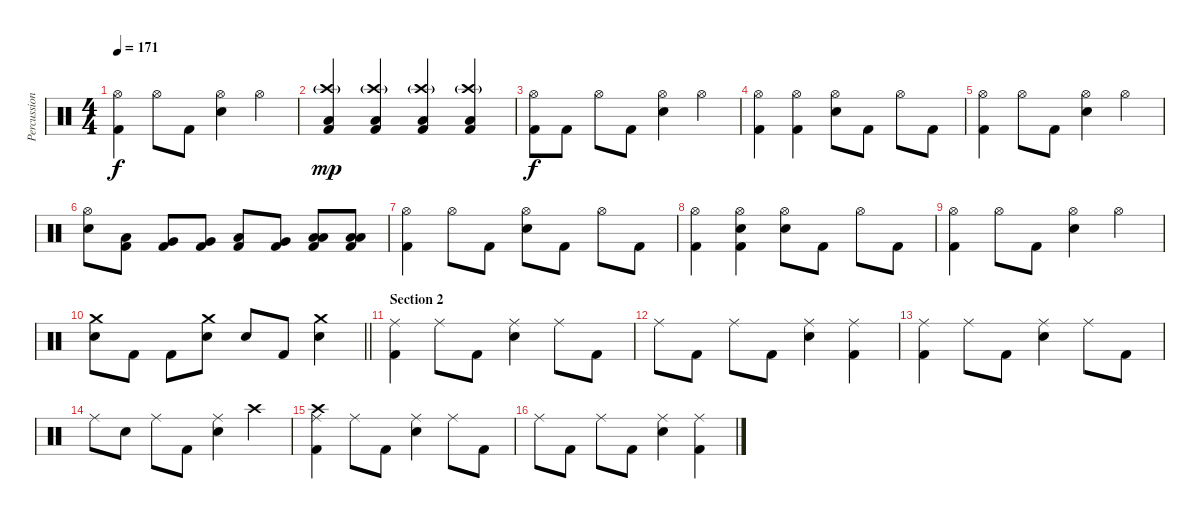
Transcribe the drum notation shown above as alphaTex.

\track ("Percussion" "Percussion") {instrument percussion}
\staff {score}
\articulation defaults
\ts (4 4)
\tempo 171
\clef neutral
\ks c
("Hi-Hat (open)" "Kick (hit) 2").4{dy f} "Hi-Hat (open)".8 "Kick (hit) 2".8 ("Hi-Hat (open)" "Snare (hit) 2").4 "Hi-Hat (open)".4 |
("Crash high (hit)"{g} "Low Tom (hit)" "Kick (hit) 2").4{dy mp} ("Crash high (hit)"{g} "Low Tom (hit)" "Kick (hit) 2").4 ("Crash high (hit)"{g} "Low Tom (hit)" "Kick (hit) 2").4 ("Crash high (hit)"{g} "Low Tom (hit)" "Kick (hit) 2").4 |
("Hi-Hat (open)" "Kick (hit) 2").8{dy f} "Kick (hit) 2".8 "Hi-Hat (open)".8 "Kick (hit) 2".8 ("Hi-Hat (open)" "Snare (hit) 2").4 "Hi-Hat (open)".4 |
("Hi-Hat (open)" "Kick (hit) 2").4 ("Hi-Hat (open)" "Kick (hit) 2").4 ("Hi-Hat (open)" "Snare (hit) 2").8 "Kick (hit) 2".8 "Hi-Hat (open)".8 "Kick (hit) 2".8 |
("Hi-Hat (open)" "Kick (hit) 2").4 "Hi-Hat (open)".8 "Kick (hit) 2".8 ("Hi-Hat (open)" "Snare (hit) 2").4 "Hi-Hat (open)".4 |
("Hi-Hat (open)" "Snare (hit) 2").8 ("Low Tom (hit)" "Kick (hit) 2").8 ("Very Low Tom (hit)" "Kick (hit) 2").8 ("Very Low Tom (hit)" "Kick (hit) 2").8 ("Low Tom (hit)" "Kick (hit) 2").8 ("Very Low Tom (hit)" "Kick (hit) 2").8 ("Low Floor Tom (hit)" "Low Floor Tom (hit)" "Kick (hit) 2").8 ("Low Floor Tom (hit)" "Low Floor Tom (hit)" "Kick (hit) 2").8 |
("Hi-Hat (open)" "Kick (hit) 2").4 "Hi-Hat (open)".8 "Kick (hit) 2".8 ("Hi-Hat (open)" "Snare (hit) 2").8 "Kick (hit) 2".8 "Hi-Hat (open)".8 "Kick (hit) 2".8 |
("Hi-Hat (open)" "Kick (hit) 2").4 ("Hi-Hat (open)" "Snare (hit) 2" "Kick (hit) 2").4 ("Hi-Hat (open)" "Snare (hit) 2").8 "Kick (hit) 2".8 "Hi-Hat (open)".8 "Kick (hit) 2".8 |
("Hi-Hat (open)" "Kick (hit) 2").4 "Hi-Hat (open)".8 "Kick (hit) 2".8 ("Hi-Hat (open)" "Snare (hit) 2").4 "Hi-Hat (open)".4 |
\barLineRight lightlight
("Crash medium (hit)" "Snare (hit) 2").8 "Kick (hit) 2".8 "Kick (hit) 2".8 ("Crash medium (hit)" "Snare (hit) 2").8 "Snare (hit) 2".8 "Kick (hit) 2".8 ("Crash medium (hit)" "Snare (hit) 2").4 |
\section ("" "Section 2")
("Ride (middle)" "Kick (hit) 2").4 "Ride (middle)".8 "Kick (hit) 2".8 ("Ride (middle)" "Snare (hit) 2").4 "Ride (middle)".8 "Kick (hit) 2".8 |
"Ride (middle)".8 "Kick (hit) 2".8 "Ride (middle)".8 "Kick (hit) 2".8 ("Ride (middle)" "Snare (hit) 2").4 ("Ride (middle)" "Kick (hit) 2").4 |
("Ride (middle)" "Kick (hit) 2").4 "Ride (middle)".8 "Kick (hit) 2".8 ("Ride (middle)" "Snare (hit) 2").4 "Ride (middle)".8 "Kick (hit) 2".8 |
"Ride (middle)".8 "Snare (hit) 2".8 "Ride (middle)".8 "Kick (hit) 2".8 ("Ride (middle)" "Snare (hit) 2").4 "Crash high (hit)".4 |
("Ride (middle)" "Crash high (hit)" "Kick (hit) 2").4 "Ride (middle)".8 "Kick (hit) 2".8 ("Ride (middle)" "Snare (hit) 2").4 "Ride (middle)".8 "Kick (hit) 2".8 |
"Ride (middle)".8 "Kick (hit) 2".8 "Ride (middle)".8 "Kick (hit) 2".8 ("Ride (middle)" "Snare (hit) 2").4 ("Ride (middle)" "Kick (hit) 2").4
